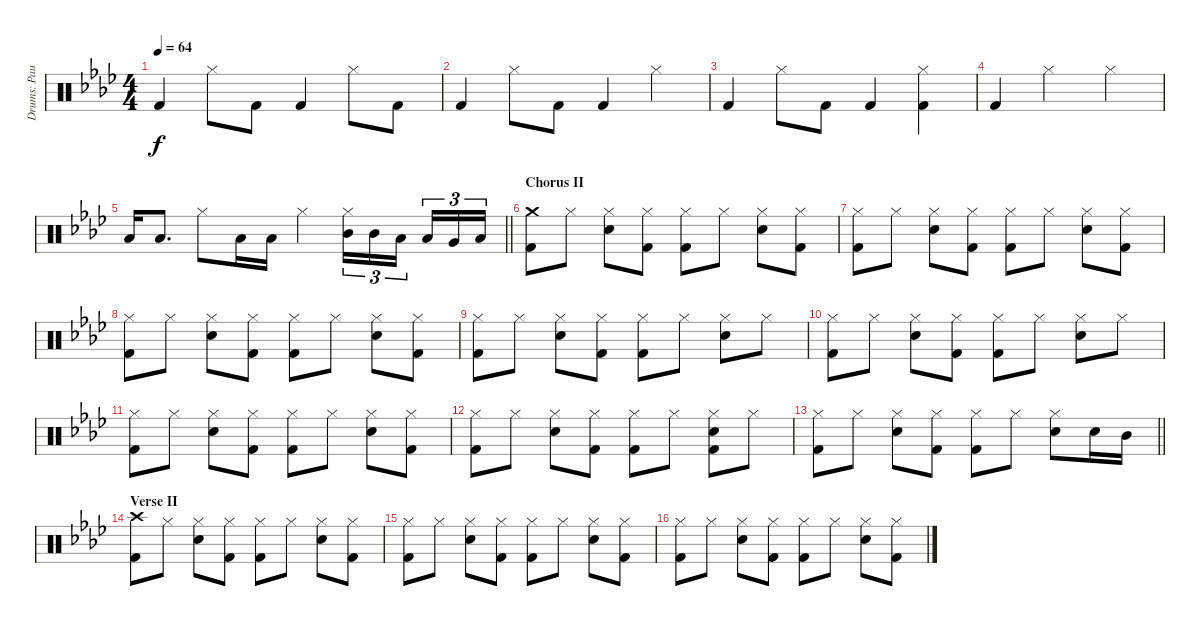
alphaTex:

\track ("Drums: Paulinho" "Drums: Pau") {instrument percussion}
\staff {score}
\articulation defaults
\ts (4 4)
\tempo 64
\clef neutral
\ks ab "Kick (hit) 2".4{dy f} "Hi-Hat (closed)".8 "Kick (hit) 2".8 "Kick (hit) 2".4 "Hi-Hat (closed)".8 "Kick (hit) 2".8
|
"Kick (hit) 2".4 "Hi-Hat (closed)".8 "Kick (hit) 2".8 "Kick (hit) 2".4 "Hi-Hat (closed)".4 |
"Kick (hit) 2".4 "Hi-Hat (closed)".8 "Kick (hit) 2".8 "Kick (hit) 2".4 ("Hi-Hat (closed)" "Kick (hit) 2").4 |
"Kick (hit) 2".4 "Hi-Hat (closed)".2 "Hi-Hat (closed)".4 |
\barLineRight lightlight "Low Tom (hit)".16 "Low Tom (hit)".8{d} "Hi-Hat (closed)".8 "Low Tom (hit)".16 "Low Tom (hit)".16 "Hi-Hat (closed)".4
("Hi-Hat (closed)" "Mid Tom (hit)").16{tu (3 2)} "Mid Tom (hit)".16{tu (3 2)} "Low Tom (hit)".16{tu (3 2) beam splitsecondary} "Low Tom (hit)".16{tu (3 2)} "Very Low Tom (hit)".16{tu (3 2)} "Low Floor Tom (hit)".16{tu (3 2)} |
\section ("" "Chorus II")
("Crash medium (hit)" "Kick (hit) 2").8 "Hi-Hat (closed)".8 ("Hi-Hat (closed)" "Electric Snare (hit)").8 ("Hi-Hat (closed)" "Kick (hit) 2").8 ("Hi-Hat (closed)" "Kick (hit) 2").8 "Hi-Hat (closed)".8 ("Hi-Hat (closed)" "Electric Snare (hit)").8 ("Hi-Hat (closed)" "Kick (hit) 2").8 |
("Hi-Hat (closed)" "Kick (hit) 2").8 "Hi-Hat (closed)".8 ("Hi-Hat (closed)" "Electric Snare (hit)").8 ("Hi-Hat (closed)" "Kick (hit) 2").8 ("Hi-Hat (closed)" "Kick (hit) 2").8 "Hi-Hat (closed)".8 ("Hi-Hat (closed)" "Electric Snare (hit)").8 ("Hi-Hat (closed)" "Kick (hit) 2").8 |
("Hi-Hat (closed)" "Kick (hit) 2").8 "Hi-Hat (closed)".8 ("Hi-Hat (closed)" "Electric Snare (hit)").8 ("Hi-Hat (closed)" "Kick (hit) 2").8 ("Hi-Hat (closed)" "Kick (hit) 2").8 "Hi-Hat (closed)".8 ("Hi-Hat (closed)" "Electric Snare (hit)").8 ("Hi-Hat (closed)" "Kick (hit) 2").8 |
("Hi-Hat (closed)" "Kick (hit) 2").8 "Hi-Hat (closed)".8 ("Hi-Hat (closed)" "Electric Snare (hit)").8 ("Hi-Hat (closed)" "Kick (hit) 2").8 ("Hi-Hat (closed)" "Kick (hit) 2").8 "Hi-Hat (closed)".8 ("Hi-Hat (closed)" "Electric Snare (hit)").8 "Hi-Hat (closed)".8 |
("Hi-Hat (closed)" "Kick (hit) 2").8 "Hi-Hat (closed)".8 ("Hi-Hat (closed)" "Electric Snare (hit)").8 ("Hi-Hat (closed)" "Kick (hit) 2").8 ("Hi-Hat (closed)" "Kick (hit) 2").8 "Hi-Hat (closed)".8 ("Hi-Hat (closed)" "Electric Snare (hit)").8 "Hi-Hat (closed)".8 |
("Hi-Hat (closed)" "Kick (hit) 2").8 "Hi-Hat (closed)".8 ("Hi-Hat (closed)" "Electric Snare (hit)").8 ("Hi-Hat (closed)" "Kick (hit) 2").8 ("Hi-Hat (closed)" "Kick (hit) 2").8 "Hi-Hat (closed)".8 ("Hi-Hat (closed)" "Electric Snare (hit)").8 ("Hi-Hat (closed)" "Kick (hit) 2").8 |
("Hi-Hat (closed)" "Kick (hit) 2").8 "Hi-Hat (closed)".8 ("Hi-Hat (closed)" "Electric Snare (hit)").8 ("Hi-Hat (closed)" "Kick (hit) 2").8 ("Hi-Hat (closed)" "Kick (hit) 2").8 "Hi-Hat (closed)".8 ("Hi-Hat (closed)" "Electric Snare (hit)" "Kick (hit) 2").8 "Hi-Hat (closed)".8 |
\barLineRight lightlight
("Hi-Hat (closed)" "Kick (hit) 2").8 "Hi-Hat (closed)".8 ("Hi-Hat (closed)" "Electric Snare (hit)").8 ("Hi-Hat (closed)" "Kick (hit) 2").8 ("Hi-Hat (closed)" "Kick (hit) 2").8 "Hi-Hat (closed)".8 ("Hi-Hat (closed)" "Electric Snare (hit)").8 "Electric Snare (hit)".16 "Mid Tom (hit)".16 |
\section ("" "Verse II")
("Crash high (hit)" "Kick (hit) 2").8 "Hi-Hat (closed)".8 ("Hi-Hat (closed)" "Electric Snare (hit)").8 ("Hi-Hat (closed)" "Kick (hit) 2").8 ("Hi-Hat (closed)" "Kick (hit) 2").8 "Hi-Hat (closed)".8 ("Hi-Hat (closed)" "Electric Snare (hit)").8 ("Hi-Hat (closed)" "Kick (hit) 2").8 |
("Hi-Hat (closed)" "Kick (hit) 2").8 "Hi-Hat (closed)".8 ("Hi-Hat (closed)" "Electric Snare (hit)").8 ("Hi-Hat (closed)" "Kick (hit) 2").8 ("Hi-Hat (closed)" "Kick (hit) 2").8 "Hi-Hat (closed)".8 ("Hi-Hat (closed)" "Electric Snare (hit)").8 ("Hi-Hat (closed)" "Kick (hit) 2").8 |
("Hi-Hat (closed)" "Kick (hit) 2").8 "Hi-Hat (closed)".8 ("Hi-Hat (closed)" "Electric Snare (hit)").8 ("Hi-Hat (closed)" "Kick (hit) 2").8 ("Hi-Hat (closed)" "Kick (hit) 2").8 "Hi-Hat (closed)".8 ("Hi-Hat (closed)" "Electric Snare (hit)").8 ("Hi-Hat (closed)" "Kick (hit) 2").8
